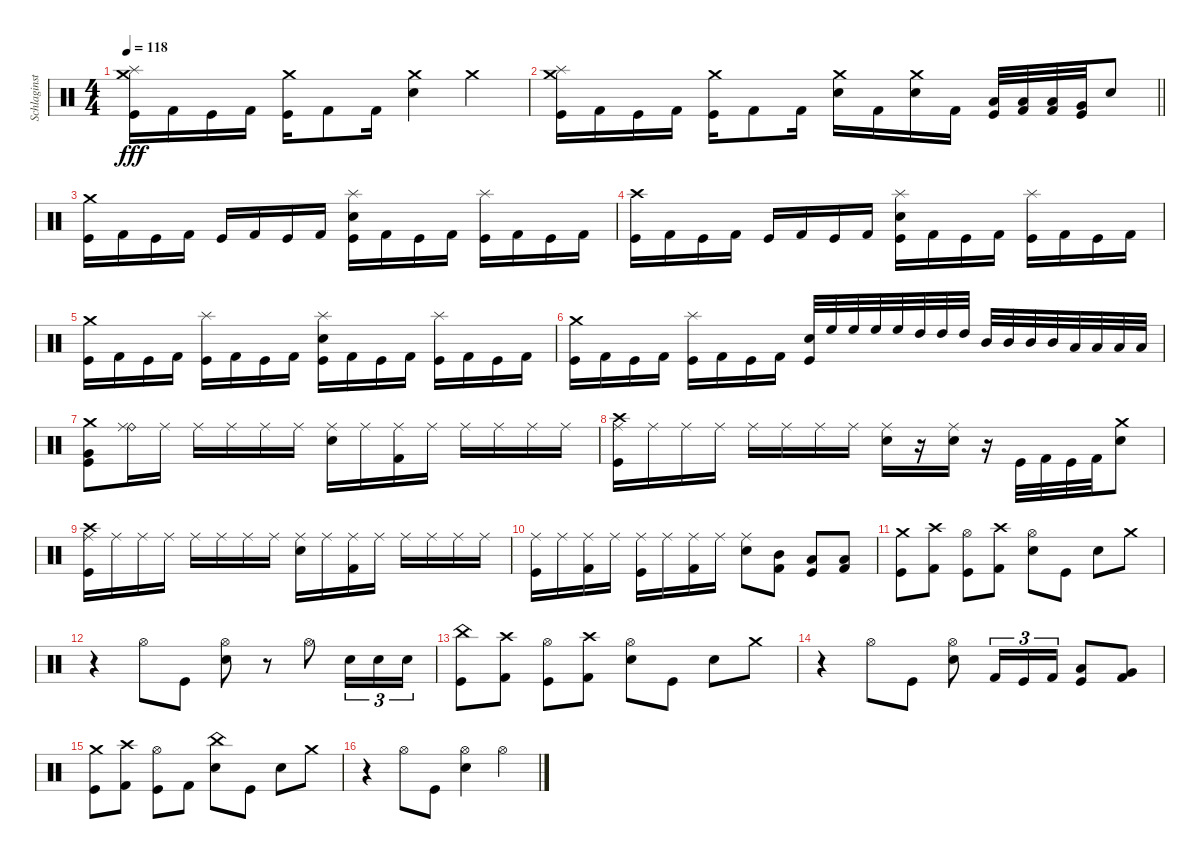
\track ("Schlaginstrumente - Auswahl" "Schlaginst") {instrument percussion}
\staff {score}
\articulation defaults
\ts (4 4)
\tempo 118
\clef neutral
\ks c
("Crash medium (hit)" "Splash (hit)" "Kick (hit)").16{dy fff} "Kick (hit) 2".16 "Kick (hit)".16 "Kick (hit) 2".16 ("Crash medium (hit)" "Kick (hit)").16 "Kick (hit) 2".8 "Kick (hit) 2".16 ("Crash medium (hit)" "Snare (hit) 2").4 "Crash medium (hit)".4 |
\barLineRight lightlight
("Crash medium (hit)" "Splash (hit)" "Kick (hit)").16 "Kick (hit) 2".16 "Kick (hit)".16 "Kick (hit) 2".16 ("Crash medium (hit)" "Kick (hit)").16 "Kick (hit) 2".8 "Kick (hit) 2".16 ("Crash medium (hit)" "Snare (hit) 2").16 "Kick (hit) 2".16 ("Crash medium (hit)" "Snare (hit) 2").16 "Kick (hit) 2".16 ("Low Tom (hit)" "Kick (hit)").32 ("Low Tom (hit)" "Kick (hit) 2").32 ("Low Tom (hit)" "Kick (hit) 2").32 ("Very Low Tom (hit)" "Kick (hit)").32 "Snare (hit) 2".8 |
("Crash medium (hit)" "Kick (hit)").16 "Kick (hit) 2".16 "Kick (hit)".16 "Kick (hit) 2".16 "Kick (hit)".16 "Kick (hit) 2".16 "Kick (hit)".16 "Kick (hit) 2".16 ("Splash (hit)" "Snare (hit) 2" "Kick (hit)").16 "Kick (hit) 2".16 "Kick (hit)".16 "Kick (hit) 2".16 ("Splash (hit)" "Kick (hit)").16 "Kick (hit) 2".16 "Kick (hit)".16 "Kick (hit) 2".16 |
("Crash high (hit)" "Kick (hit)").16 "Kick (hit) 2".16 "Kick (hit)".16 "Kick (hit) 2".16 "Kick (hit)".16 "Kick (hit) 2".16 "Kick (hit)".16 "Kick (hit) 2".16 ("Splash (hit)" "Snare (hit) 2" "Kick (hit)").16 "Kick (hit) 2".16 "Kick (hit)".16 "Kick (hit) 2".16 ("Splash (hit)" "Kick (hit)").16 "Kick (hit) 2".16 "Kick (hit)".16 "Kick (hit) 2".16 |
("Crash medium (hit)" "Kick (hit)").16 "Kick (hit) 2".16 "Kick (hit)".16 "Kick (hit) 2".16 ("Splash (hit)" "Kick (hit)").16 "Kick (hit) 2".16 "Kick (hit)".16 "Kick (hit) 2".16 ("Splash (hit)" "Snare (hit) 2" "Kick (hit)").16 "Kick (hit) 2".16 "Kick (hit)".16 "Kick (hit) 2".16 ("Splash (hit)" "Kick (hit)").16 "Kick (hit) 2".16 "Kick (hit)".16 "Kick (hit) 2".16 |
("Crash medium (hit)" "Kick (hit)").16 "Kick (hit) 2".16 "Kick (hit)".16 "Kick (hit) 2".16 ("Splash (hit)" "Kick (hit)").16 "Kick (hit) 2".16 "Kick (hit)".16 "Kick (hit) 2".16 ("Snare (hit) 2" "Kick (hit)").32 "High Floor Tom (hit)".32 "High Floor Tom (hit)".32 "High Floor Tom (hit)".32 "High Floor Tom (hit)".32 "High Tom (hit)".32 "High Tom (hit)".32 "High Tom (hit)".32 "Mid Tom (hit)".32 "Mid Tom (hit)".32 "Mid Tom (hit)".32 "Mid Tom (hit)".32 "Low Tom (hit)".32 "Low Tom (hit)".32 "Low Tom (hit)".32 "Low Tom (hit)".32 |
("Crash medium (hit)" "Very Low Tom (hit)" "Kick (hit)").8 ("Ride (bell)" "Ride (middle)").16 "Ride (middle)".16 "Ride (middle)".16 "Ride (middle)".16 "Ride (middle)".16 "Ride (middle)".16 ("Ride (middle)" "Snare (hit) 2").16 "Ride (middle)".16 ("Ride (middle)" "Kick (hit) 2").16 "Ride (middle)".16 "Ride (middle)".16 "Ride (middle)".16 "Ride (middle)".16 "Ride (middle)".16 |
("Crash high (hit)" "Ride (middle)" "Kick (hit)").16 "Ride (middle)".16 "Ride (middle)".16 "Ride (middle)".16 "Ride (middle)".16 "Ride (middle)".16 "Ride (middle)".16 "Ride (middle)".16 ("Ride (middle)" "Snare (hit) 2").16 r.16 ("Ride (middle)" "Snare (hit) 2").16 r.16 "Kick (hit)".32 "Kick (hit) 2".32 "Kick (hit)".32 "Kick (hit) 2".32 ("Crash medium (hit)" "Snare (hit) 2").8 |
("Crash high (hit)" "Ride (middle)" "Kick (hit)").16 "Ride (middle)".16 "Ride (middle)".16 "Ride (middle)".16 "Ride (middle)".16 "Ride (middle)".16 "Ride (middle)".16 "Ride (middle)".16 ("Ride (middle)" "Snare (hit) 2").16 "Ride (middle)".16 ("Ride (middle)" "Kick (hit) 2").16 "Ride (middle)".16 "Ride (middle)".16 "Ride (middle)".16 "Ride (middle)".16 "Ride (middle)".16 |
("Ride (middle)" "Kick (hit)").16 "Ride (middle)".16 ("Ride (middle)" "Kick (hit) 2").16 "Ride (middle)".16 ("Ride (middle)" "Kick (hit)").16 "Ride (middle)".16 ("Ride (middle)" "Kick (hit) 2").16 "Ride (middle)".16 ("Ride (middle)" "Snare (hit) 2").8 ("Mid Tom (hit)" "Kick (hit) 2").8 ("Low Tom (hit)" "Kick (hit)").8 ("Low Tom (hit)" "Kick (hit) 2").8 |
("Crash medium (hit)" "Kick (hit)").8 ("Crash high (hit)" "Kick (hit) 2").8 ("Hi-Hat (open)" "Kick (hit)").8 ("Crash high (hit)" "Kick (hit) 2").8 ("Hi-Hat (open)" "Snare (hit) 2").8 "Kick (hit)".8 "Snare (hit) 2".8 "Crash medium (hit)".8 |
r.4 "Hi-Hat (open)".8 "Kick (hit)".8 ("Hi-Hat (open)" "Snare (hit) 2").8 r.8 "Hi-Hat (open)".8 "Snare (hit) 2".16{tu (3 2)} "Snare (hit) 2".16{tu (3 2)} "Snare (hit) 2".16{tu (3 2)} |
("China (hit)" "Kick (hit)").8 ("Crash high (hit)" "Kick (hit) 2").8 ("Hi-Hat (open)" "Kick (hit)").8 ("Crash high (hit)" "Kick (hit) 2").8 ("Hi-Hat (open)" "Snare (hit) 2").8 "Kick (hit)".8 "Snare (hit) 2".8 "Crash medium (hit)".8 |
r.4 "Hi-Hat (open)".8 "Kick (hit)".8 ("Hi-Hat (open)" "Snare (hit) 2").8 "Kick (hit) 2".16{tu (3 2)} "Kick (hit)".16{tu (3 2)} "Kick (hit) 2".16{tu (3 2)} ("Low Tom (hit)" "Kick (hit)").8 ("Very Low Tom (hit)" "Kick (hit) 2").8 |
("Crash medium (hit)" "Kick (hit)").8 ("Crash high (hit)" "Kick (hit) 2").8 ("Hi-Hat (open)" "Kick (hit)").8 "Kick (hit) 2".8 ("China (hit)" "Snare (hit) 2").8 "Kick (hit)".8 "Snare (hit) 2".8 "Crash medium (hit)".8 |
r.4 "Hi-Hat (open)".8 "Kick (hit)".8 ("Hi-Hat (open)" "Snare (hit) 2").4 "Hi-Hat (open)".4
